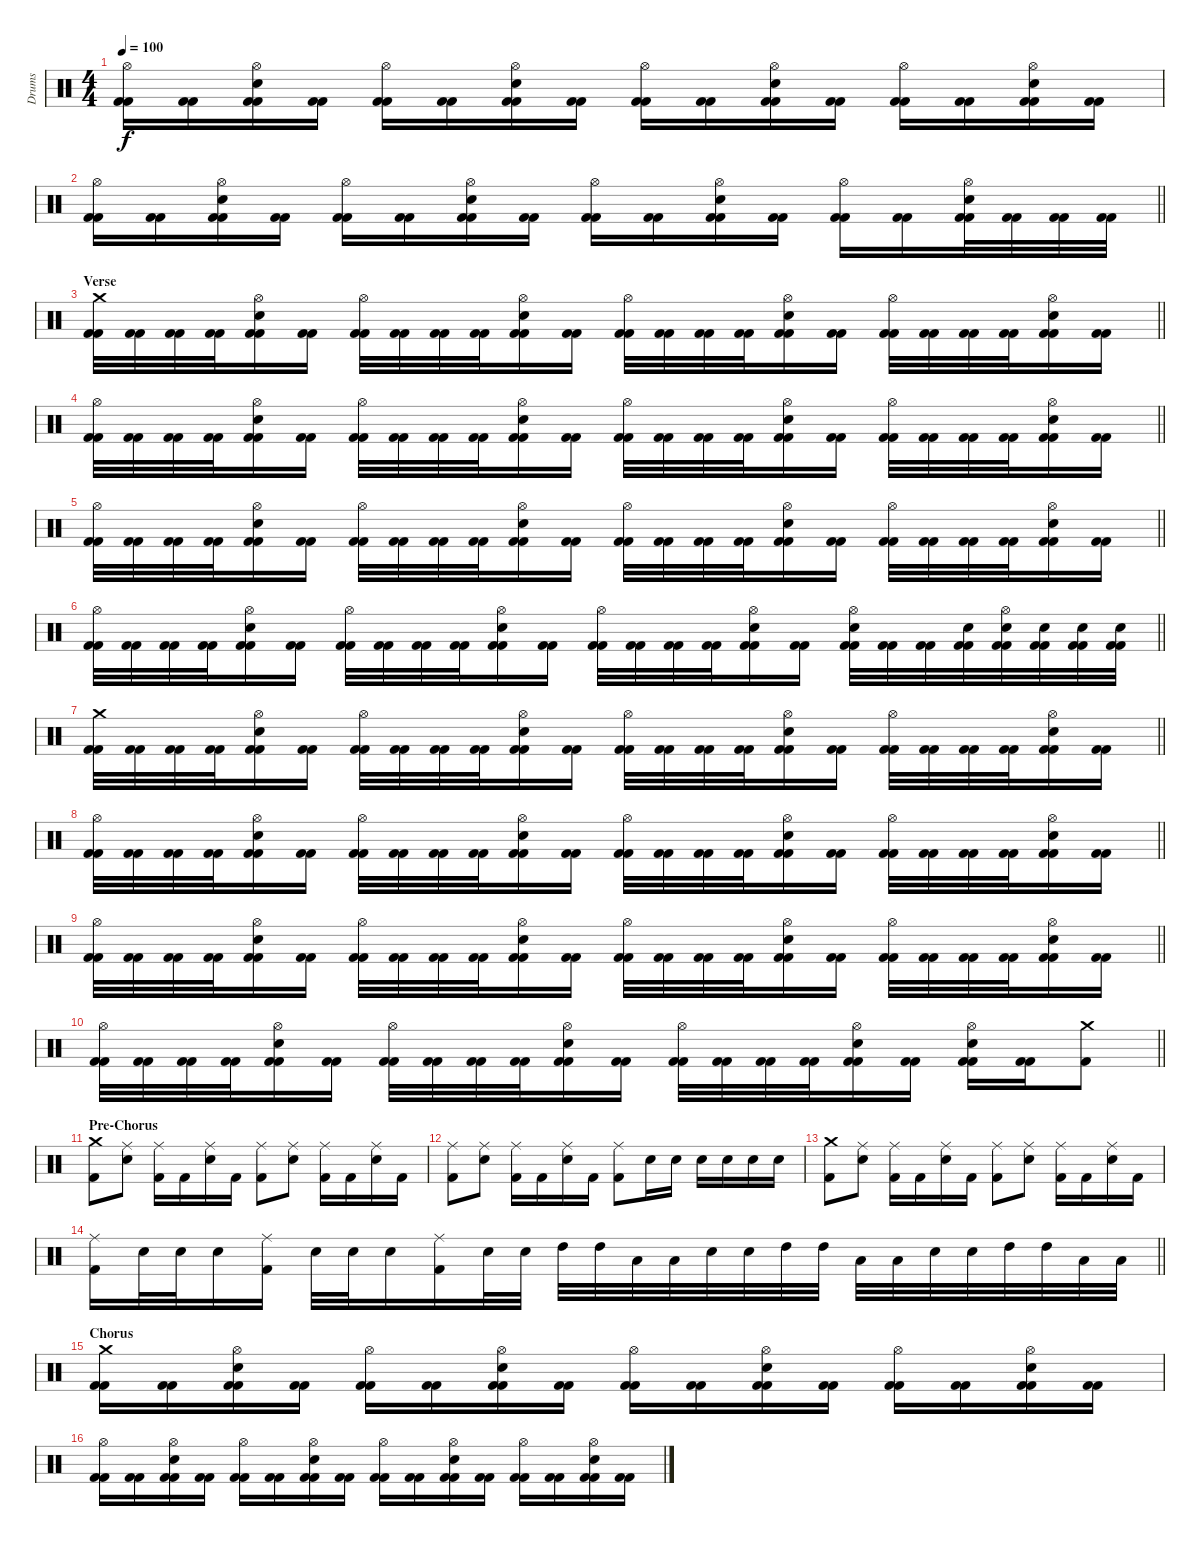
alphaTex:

\track ("Drums" "Drums") {instrument percussion}
\staff {score}
\articulation defaults
\ts (4 4)
\tempo 100
\clef neutral
\ks c
("Hi-Hat (open)" "Kick (hit) 2" "Kick (hit) 2").16{dy f} ("Kick (hit) 2" "Kick (hit) 2").16 ("Hi-Hat (open)" "Electric Snare (hit)" "Kick (hit) 2" "Kick (hit) 2").16 ("Kick (hit) 2" "Kick (hit) 2").16 ("Hi-Hat (open)" "Kick (hit) 2" "Kick (hit) 2").16 ("Kick (hit) 2" "Kick (hit) 2").16 ("Hi-Hat (open)" "Electric Snare (hit)" "Kick (hit) 2" "Kick (hit) 2").16 ("Kick (hit) 2" "Kick (hit) 2").16 ("Hi-Hat (open)" "Kick (hit) 2" "Kick (hit) 2").16 ("Kick (hit) 2" "Kick (hit) 2").16 ("Hi-Hat (open)" "Electric Snare (hit)" "Kick (hit) 2" "Kick (hit) 2").16 ("Kick (hit) 2" "Kick (hit) 2").16 ("Hi-Hat (open)" "Kick (hit) 2" "Kick (hit) 2").16 ("Kick (hit) 2" "Kick (hit) 2").16 ("Hi-Hat (open)" "Electric Snare (hit)" "Kick (hit) 2" "Kick (hit) 2").16 ("Kick (hit) 2" "Kick (hit) 2").16 |
\barLineRight lightlight
("Hi-Hat (open)" "Kick (hit) 2" "Kick (hit) 2").16 ("Kick (hit) 2" "Kick (hit) 2").16 ("Hi-Hat (open)" "Electric Snare (hit)" "Kick (hit) 2" "Kick (hit) 2").16 ("Kick (hit) 2" "Kick (hit) 2").16 ("Hi-Hat (open)" "Kick (hit) 2" "Kick (hit) 2").16 ("Kick (hit) 2" "Kick (hit) 2").16 ("Hi-Hat (open)" "Electric Snare (hit)" "Kick (hit) 2" "Kick (hit) 2").16 ("Kick (hit) 2" "Kick (hit) 2").16 ("Hi-Hat (open)" "Kick (hit) 2" "Kick (hit) 2").16 ("Kick (hit) 2" "Kick (hit) 2").16 ("Hi-Hat (open)" "Electric Snare (hit)" "Kick (hit) 2" "Kick (hit) 2").16 ("Kick (hit) 2" "Kick (hit) 2").16 ("Hi-Hat (open)" "Kick (hit) 2" "Kick (hit) 2").16 ("Kick (hit) 2" "Kick (hit) 2").16 ("Hi-Hat (open)" "Electric Snare (hit)" "Kick (hit) 2" "Kick (hit) 2").32 ("Kick (hit) 2" "Kick (hit) 2").32 ("Kick (hit) 2" "Kick (hit) 2").32 ("Kick (hit) 2" "Kick (hit) 2").32 |
\section ("" "Verse")
\barLineRight lightlight
("Crash medium (hit)" "Kick (hit) 2" "Kick (hit) 2").32 ("Kick (hit) 2" "Kick (hit) 2").32 ("Kick (hit) 2" "Kick (hit) 2").32 ("Kick (hit) 2" "Kick (hit) 2").32 ("Hi-Hat (open)" "Electric Snare (hit)" "Kick (hit) 2" "Kick (hit) 2").16 ("Kick (hit) 2" "Kick (hit) 2").16 ("Hi-Hat (open)" "Kick (hit) 2" "Kick (hit) 2").32 ("Kick (hit) 2" "Kick (hit) 2").32 ("Kick (hit) 2" "Kick (hit) 2").32 ("Kick (hit) 2" "Kick (hit) 2").32 ("Hi-Hat (open)" "Electric Snare (hit)" "Kick (hit) 2" "Kick (hit) 2").16 ("Kick (hit) 2" "Kick (hit) 2").16 ("Hi-Hat (open)" "Kick (hit) 2" "Kick (hit) 2").32 ("Kick (hit) 2" "Kick (hit) 2").32 ("Kick (hit) 2" "Kick (hit) 2").32 ("Kick (hit) 2" "Kick (hit) 2").32 ("Hi-Hat (open)" "Electric Snare (hit)" "Kick (hit) 2" "Kick (hit) 2").16 ("Kick (hit) 2" "Kick (hit) 2").16 ("Hi-Hat (open)" "Kick (hit) 2" "Kick (hit) 2").32 ("Kick (hit) 2" "Kick (hit) 2").32 ("Kick (hit) 2" "Kick (hit) 2").32 ("Kick (hit) 2" "Kick (hit) 2").32 ("Hi-Hat (open)" "Electric Snare (hit)" "Kick (hit) 2" "Kick (hit) 2").16 ("Kick (hit) 2" "Kick (hit) 2").16 |
\barLineRight lightlight
("Hi-Hat (open)" "Kick (hit) 2" "Kick (hit) 2").32 ("Kick (hit) 2" "Kick (hit) 2").32 ("Kick (hit) 2" "Kick (hit) 2").32 ("Kick (hit) 2" "Kick (hit) 2").32 ("Hi-Hat (open)" "Electric Snare (hit)" "Kick (hit) 2" "Kick (hit) 2").16 ("Kick (hit) 2" "Kick (hit) 2").16 ("Hi-Hat (open)" "Kick (hit) 2" "Kick (hit) 2").32 ("Kick (hit) 2" "Kick (hit) 2").32 ("Kick (hit) 2" "Kick (hit) 2").32 ("Kick (hit) 2" "Kick (hit) 2").32 ("Hi-Hat (open)" "Electric Snare (hit)" "Kick (hit) 2" "Kick (hit) 2").16 ("Kick (hit) 2" "Kick (hit) 2").16 ("Hi-Hat (open)" "Kick (hit) 2" "Kick (hit) 2").32 ("Kick (hit) 2" "Kick (hit) 2").32 ("Kick (hit) 2" "Kick (hit) 2").32 ("Kick (hit) 2" "Kick (hit) 2").32 ("Hi-Hat (open)" "Electric Snare (hit)" "Kick (hit) 2" "Kick (hit) 2").16 ("Kick (hit) 2" "Kick (hit) 2").16 ("Hi-Hat (open)" "Kick (hit) 2" "Kick (hit) 2").32 ("Kick (hit) 2" "Kick (hit) 2").32 ("Kick (hit) 2" "Kick (hit) 2").32 ("Kick (hit) 2" "Kick (hit) 2").32 ("Hi-Hat (open)" "Electric Snare (hit)" "Kick (hit) 2" "Kick (hit) 2").16 ("Kick (hit) 2" "Kick (hit) 2").16 |
\barLineRight lightlight
("Hi-Hat (open)" "Kick (hit) 2" "Kick (hit) 2").32 ("Kick (hit) 2" "Kick (hit) 2").32 ("Kick (hit) 2" "Kick (hit) 2").32 ("Kick (hit) 2" "Kick (hit) 2").32 ("Hi-Hat (open)" "Electric Snare (hit)" "Kick (hit) 2" "Kick (hit) 2").16 ("Kick (hit) 2" "Kick (hit) 2").16 ("Hi-Hat (open)" "Kick (hit) 2" "Kick (hit) 2").32 ("Kick (hit) 2" "Kick (hit) 2").32 ("Kick (hit) 2" "Kick (hit) 2").32 ("Kick (hit) 2" "Kick (hit) 2").32 ("Hi-Hat (open)" "Electric Snare (hit)" "Kick (hit) 2" "Kick (hit) 2").16 ("Kick (hit) 2" "Kick (hit) 2").16 ("Hi-Hat (open)" "Kick (hit) 2" "Kick (hit) 2").32 ("Kick (hit) 2" "Kick (hit) 2").32 ("Kick (hit) 2" "Kick (hit) 2").32 ("Kick (hit) 2" "Kick (hit) 2").32 ("Hi-Hat (open)" "Electric Snare (hit)" "Kick (hit) 2" "Kick (hit) 2").16 ("Kick (hit) 2" "Kick (hit) 2").16 ("Hi-Hat (open)" "Kick (hit) 2" "Kick (hit) 2").32 ("Kick (hit) 2" "Kick (hit) 2").32 ("Kick (hit) 2" "Kick (hit) 2").32 ("Kick (hit) 2" "Kick (hit) 2").32 ("Hi-Hat (open)" "Electric Snare (hit)" "Kick (hit) 2" "Kick (hit) 2").16 ("Kick (hit) 2" "Kick (hit) 2").16 |
\barLineRight lightlight
("Hi-Hat (open)" "Kick (hit) 2" "Kick (hit) 2").32 ("Kick (hit) 2" "Kick (hit) 2").32 ("Kick (hit) 2" "Kick (hit) 2").32 ("Kick (hit) 2" "Kick (hit) 2").32 ("Hi-Hat (open)" "Electric Snare (hit)" "Kick (hit) 2" "Kick (hit) 2").16 ("Kick (hit) 2" "Kick (hit) 2").16 ("Hi-Hat (open)" "Kick (hit) 2" "Kick (hit) 2").32 ("Kick (hit) 2" "Kick (hit) 2").32 ("Kick (hit) 2" "Kick (hit) 2").32 ("Kick (hit) 2" "Kick (hit) 2").32 ("Hi-Hat (open)" "Electric Snare (hit)" "Kick (hit) 2" "Kick (hit) 2").16 ("Kick (hit) 2" "Kick (hit) 2").16 ("Hi-Hat (open)" "Kick (hit) 2" "Kick (hit) 2").32 ("Kick (hit) 2" "Kick (hit) 2").32 ("Kick (hit) 2" "Kick (hit) 2").32 ("Kick (hit) 2" "Kick (hit) 2").32 ("Hi-Hat (open)" "Electric Snare (hit)" "Kick (hit) 2" "Kick (hit) 2").16 ("Kick (hit) 2" "Kick (hit) 2").16 ("Hi-Hat (open)" "Electric Snare (hit)" "Kick (hit) 2" "Kick (hit) 2").32 ("Kick (hit) 2" "Kick (hit) 2").32 ("Kick (hit) 2" "Kick (hit) 2").32 ("Electric Snare (hit)" "Kick (hit) 2" "Kick (hit) 2").32 ("Hi-Hat (open)" "Electric Snare (hit)" "Kick (hit) 2" "Kick (hit) 2").32 ("Electric Snare (hit)" "Kick (hit) 2" "Kick (hit) 2").32 ("Electric Snare (hit)" "Kick (hit) 2" "Kick (hit) 2").32 ("Electric Snare (hit)" "Kick (hit) 2" "Kick (hit) 2").32 |
\barLineRight lightlight
("Crash medium (hit)" "Kick (hit) 2" "Kick (hit) 2").32 ("Kick (hit) 2" "Kick (hit) 2").32 ("Kick (hit) 2" "Kick (hit) 2").32 ("Kick (hit) 2" "Kick (hit) 2").32 ("Hi-Hat (open)" "Electric Snare (hit)" "Kick (hit) 2" "Kick (hit) 2").16 ("Kick (hit) 2" "Kick (hit) 2").16 ("Hi-Hat (open)" "Kick (hit) 2" "Kick (hit) 2").32 ("Kick (hit) 2" "Kick (hit) 2").32 ("Kick (hit) 2" "Kick (hit) 2").32 ("Kick (hit) 2" "Kick (hit) 2").32 ("Hi-Hat (open)" "Electric Snare (hit)" "Kick (hit) 2" "Kick (hit) 2").16 ("Kick (hit) 2" "Kick (hit) 2").16 ("Hi-Hat (open)" "Kick (hit) 2" "Kick (hit) 2").32 ("Kick (hit) 2" "Kick (hit) 2").32 ("Kick (hit) 2" "Kick (hit) 2").32 ("Kick (hit) 2" "Kick (hit) 2").32 ("Hi-Hat (open)" "Electric Snare (hit)" "Kick (hit) 2" "Kick (hit) 2").16 ("Kick (hit) 2" "Kick (hit) 2").16 ("Hi-Hat (open)" "Kick (hit) 2" "Kick (hit) 2").32 ("Kick (hit) 2" "Kick (hit) 2").32 ("Kick (hit) 2" "Kick (hit) 2").32 ("Kick (hit) 2" "Kick (hit) 2").32 ("Hi-Hat (open)" "Electric Snare (hit)" "Kick (hit) 2" "Kick (hit) 2").16 ("Kick (hit) 2" "Kick (hit) 2").16 |
\barLineRight lightlight
("Hi-Hat (open)" "Kick (hit) 2" "Kick (hit) 2").32 ("Kick (hit) 2" "Kick (hit) 2").32 ("Kick (hit) 2" "Kick (hit) 2").32 ("Kick (hit) 2" "Kick (hit) 2").32 ("Hi-Hat (open)" "Electric Snare (hit)" "Kick (hit) 2" "Kick (hit) 2").16 ("Kick (hit) 2" "Kick (hit) 2").16 ("Hi-Hat (open)" "Kick (hit) 2" "Kick (hit) 2").32 ("Kick (hit) 2" "Kick (hit) 2").32 ("Kick (hit) 2" "Kick (hit) 2").32 ("Kick (hit) 2" "Kick (hit) 2").32 ("Hi-Hat (open)" "Electric Snare (hit)" "Kick (hit) 2" "Kick (hit) 2").16 ("Kick (hit) 2" "Kick (hit) 2").16 ("Hi-Hat (open)" "Kick (hit) 2" "Kick (hit) 2").32 ("Kick (hit) 2" "Kick (hit) 2").32 ("Kick (hit) 2" "Kick (hit) 2").32 ("Kick (hit) 2" "Kick (hit) 2").32 ("Hi-Hat (open)" "Electric Snare (hit)" "Kick (hit) 2" "Kick (hit) 2").16 ("Kick (hit) 2" "Kick (hit) 2").16 ("Hi-Hat (open)" "Kick (hit) 2" "Kick (hit) 2").32 ("Kick (hit) 2" "Kick (hit) 2").32 ("Kick (hit) 2" "Kick (hit) 2").32 ("Kick (hit) 2" "Kick (hit) 2").32 ("Hi-Hat (open)" "Electric Snare (hit)" "Kick (hit) 2" "Kick (hit) 2").16 ("Kick (hit) 2" "Kick (hit) 2").16 |
\barLineRight lightlight
("Hi-Hat (open)" "Kick (hit) 2" "Kick (hit) 2").32 ("Kick (hit) 2" "Kick (hit) 2").32 ("Kick (hit) 2" "Kick (hit) 2").32 ("Kick (hit) 2" "Kick (hit) 2").32 ("Hi-Hat (open)" "Electric Snare (hit)" "Kick (hit) 2" "Kick (hit) 2").16 ("Kick (hit) 2" "Kick (hit) 2").16 ("Hi-Hat (open)" "Kick (hit) 2" "Kick (hit) 2").32 ("Kick (hit) 2" "Kick (hit) 2").32 ("Kick (hit) 2" "Kick (hit) 2").32 ("Kick (hit) 2" "Kick (hit) 2").32 ("Hi-Hat (open)" "Electric Snare (hit)" "Kick (hit) 2" "Kick (hit) 2").16 ("Kick (hit) 2" "Kick (hit) 2").16 ("Hi-Hat (open)" "Kick (hit) 2" "Kick (hit) 2").32 ("Kick (hit) 2" "Kick (hit) 2").32 ("Kick (hit) 2" "Kick (hit) 2").32 ("Kick (hit) 2" "Kick (hit) 2").32 ("Hi-Hat (open)" "Electric Snare (hit)" "Kick (hit) 2" "Kick (hit) 2").16 ("Kick (hit) 2" "Kick (hit) 2").16 ("Hi-Hat (open)" "Kick (hit) 2" "Kick (hit) 2").32 ("Kick (hit) 2" "Kick (hit) 2").32 ("Kick (hit) 2" "Kick (hit) 2").32 ("Kick (hit) 2" "Kick (hit) 2").32 ("Hi-Hat (open)" "Electric Snare (hit)" "Kick (hit) 2" "Kick (hit) 2").16 ("Kick (hit) 2" "Kick (hit) 2").16 |
\barLineRight lightlight
("Hi-Hat (open)" "Kick (hit) 2" "Kick (hit) 2").32 ("Kick (hit) 2" "Kick (hit) 2").32 ("Kick (hit) 2" "Kick (hit) 2").32 ("Kick (hit) 2" "Kick (hit) 2").32 ("Hi-Hat (open)" "Electric Snare (hit)" "Kick (hit) 2" "Kick (hit) 2").16 ("Kick (hit) 2" "Kick (hit) 2").16 ("Hi-Hat (open)" "Kick (hit) 2" "Kick (hit) 2").32 ("Kick (hit) 2" "Kick (hit) 2").32 ("Kick (hit) 2" "Kick (hit) 2").32 ("Kick (hit) 2" "Kick (hit) 2").32 ("Hi-Hat (open)" "Electric Snare (hit)" "Kick (hit) 2" "Kick (hit) 2").16 ("Kick (hit) 2" "Kick (hit) 2").16 ("Hi-Hat (open)" "Kick (hit) 2" "Kick (hit) 2").32 ("Kick (hit) 2" "Kick (hit) 2").32 ("Kick (hit) 2" "Kick (hit) 2").32 ("Kick (hit) 2" "Kick (hit) 2").32 ("Hi-Hat (open)" "Electric Snare (hit)" "Kick (hit) 2" "Kick (hit) 2").16 ("Kick (hit) 2" "Kick (hit) 2").16 ("Hi-Hat (open)" "Electric Snare (hit)" "Kick (hit) 2" "Kick (hit) 2").16 ("Kick (hit) 2" "Kick (hit) 2").16 ("Crash medium (hit)" "Kick (hit) 2").8 |
\section ("" "Pre-Chorus")
("Crash medium (hit)" "Kick (hit) 2").8 ("Ride (middle)" "Electric Snare (hit)").8 ("Ride (middle)" "Kick (hit) 2").16 "Kick (hit) 2".16 ("Ride (middle)" "Electric Snare (hit)").16 "Kick (hit) 2".16 ("Ride (middle)" "Kick (hit) 2").8 ("Ride (middle)" "Electric Snare (hit)").8 ("Ride (middle)" "Kick (hit) 2").16 "Kick (hit) 2".16 ("Ride (middle)" "Electric Snare (hit)").16 "Kick (hit) 2".16 |
("Ride (middle)" "Kick (hit) 2").8 ("Ride (middle)" "Electric Snare (hit)").8 ("Ride (middle)" "Kick (hit) 2").16 "Kick (hit) 2".16 ("Ride (middle)" "Electric Snare (hit)").16 "Kick (hit) 2".16 ("Ride (middle)" "Kick (hit) 2").8 "Electric Snare (hit)".16 "Snare (hit) 2".16 "Snare (hit) 2".16 "Electric Snare (hit)".16 "Snare (hit) 2".16 "Snare (hit) 2".16 |
("Crash medium (hit)" "Kick (hit) 2").8 ("Ride (middle)" "Electric Snare (hit)").8 ("Ride (middle)" "Kick (hit) 2").16 "Kick (hit) 2".16 ("Ride (middle)" "Electric Snare (hit)").16 "Kick (hit) 2".16 ("Ride (middle)" "Kick (hit) 2").8 ("Ride (middle)" "Electric Snare (hit)").8 ("Ride (middle)" "Kick (hit) 2").16 "Kick (hit) 2".16 ("Ride (middle)" "Electric Snare (hit)").16 "Kick (hit) 2".16 |
\barLineRight lightlight
("Ride (middle)" "Kick (hit) 2").16 "Electric Snare (hit)".32 "Electric Snare (hit)".32 "Electric Snare (hit)".16 ("Ride (middle)" "Kick (hit) 2").16 "Electric Snare (hit)".32 "Electric Snare (hit)".32 "Electric Snare (hit)".16 ("Ride (middle)" "Kick (hit) 2").16 "Electric Snare (hit)".32 "Electric Snare (hit)".32 "High Tom (hit)".32 "High Tom (hit)".32 "Low Tom (hit)".32 "Low Tom (hit)".32 "Electric Snare (hit)".32 "Electric Snare (hit)".32 "High Tom (hit)".32 "High Tom (hit)".32 "Low Tom (hit)".32 "Low Tom (hit)".32 "Electric Snare (hit)".32 "Electric Snare (hit)".32 "High Tom (hit)".32 "High Tom (hit)".32 "Low Tom (hit)".32 "Low Tom (hit)".32 |
\section ("" "Chorus")
("Crash medium (hit)" "Kick (hit) 2" "Kick (hit) 2").16 ("Kick (hit) 2" "Kick (hit) 2").16 ("Hi-Hat (open)" "Electric Snare (hit)" "Kick (hit) 2" "Kick (hit) 2").16 ("Kick (hit) 2" "Kick (hit) 2").16 ("Hi-Hat (open)" "Kick (hit) 2" "Kick (hit) 2").16 ("Kick (hit) 2" "Kick (hit) 2").16 ("Hi-Hat (open)" "Electric Snare (hit)" "Kick (hit) 2" "Kick (hit) 2").16 ("Kick (hit) 2" "Kick (hit) 2").16 ("Hi-Hat (open)" "Kick (hit) 2" "Kick (hit) 2").16 ("Kick (hit) 2" "Kick (hit) 2").16 ("Hi-Hat (open)" "Electric Snare (hit)" "Kick (hit) 2" "Kick (hit) 2").16 ("Kick (hit) 2" "Kick (hit) 2").16 ("Hi-Hat (open)" "Kick (hit) 2" "Kick (hit) 2").16 ("Kick (hit) 2" "Kick (hit) 2").16 ("Hi-Hat (open)" "Electric Snare (hit)" "Kick (hit) 2" "Kick (hit) 2").16 ("Kick (hit) 2" "Kick (hit) 2").16 |
("Hi-Hat (open)" "Kick (hit) 2" "Kick (hit) 2").16 ("Kick (hit) 2" "Kick (hit) 2").16 ("Hi-Hat (open)" "Electric Snare (hit)" "Kick (hit) 2" "Kick (hit) 2").16 ("Kick (hit) 2" "Kick (hit) 2").16 ("Hi-Hat (open)" "Kick (hit) 2" "Kick (hit) 2").16 ("Kick (hit) 2" "Kick (hit) 2").16 ("Hi-Hat (open)" "Electric Snare (hit)" "Kick (hit) 2" "Kick (hit) 2").16 ("Kick (hit) 2" "Kick (hit) 2").16 ("Hi-Hat (open)" "Kick (hit) 2" "Kick (hit) 2").16 ("Kick (hit) 2" "Kick (hit) 2").16 ("Hi-Hat (open)" "Electric Snare (hit)" "Kick (hit) 2" "Kick (hit) 2").16 ("Kick (hit) 2" "Kick (hit) 2").16 ("Hi-Hat (open)" "Kick (hit) 2" "Kick (hit) 2").16 ("Kick (hit) 2" "Kick (hit) 2").16 ("Hi-Hat (open)" "Electric Snare (hit)" "Kick (hit) 2" "Kick (hit) 2").16 ("Kick (hit) 2" "Kick (hit) 2").16
